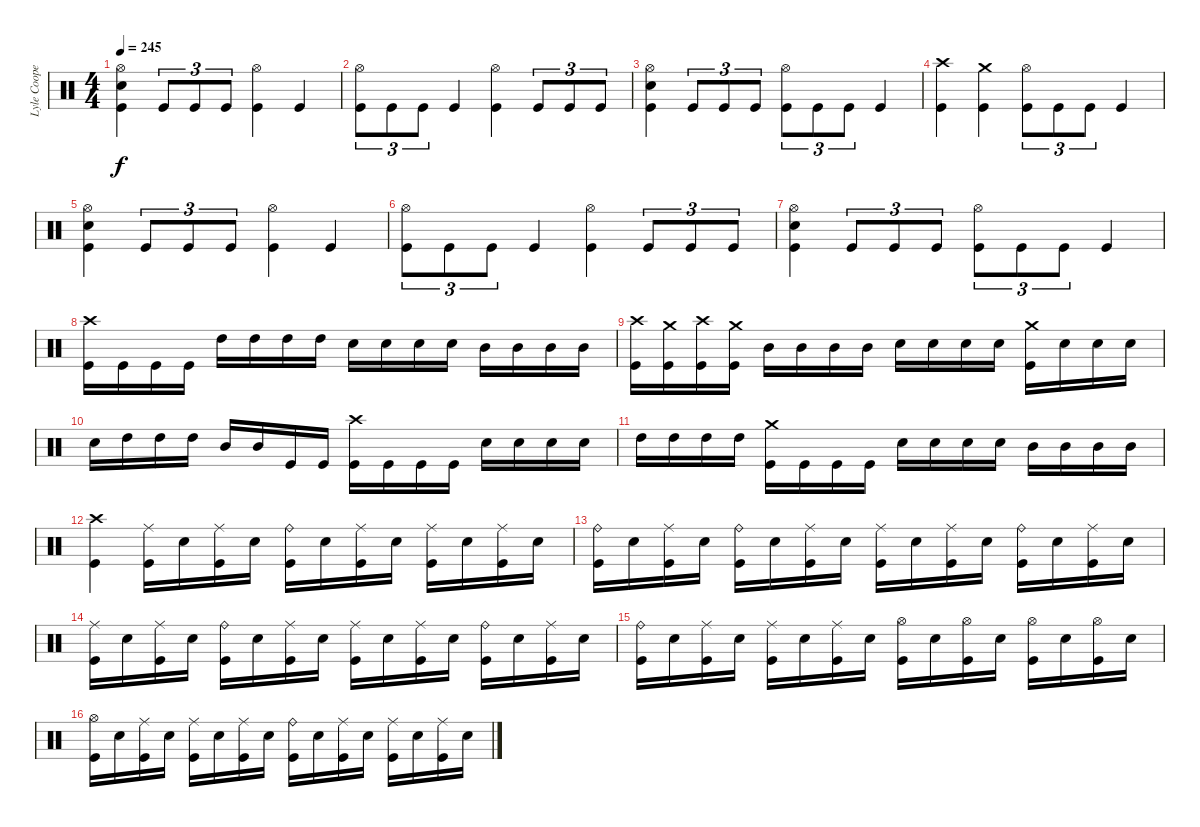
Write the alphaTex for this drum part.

\track ("Lyle Cooper" "Lyle Coope") {instrument percussion}
\staff {score}
\articulation defaults
\ts (4 4)
\tempo 245
\clef neutral
\ks c
("Hi-Hat (open)" "Snare (hit) 2" "Kick (hit)").4{dy f} "Kick (hit)".8{tu (3 2)} "Kick (hit)".8{tu (3 2)} "Kick (hit)".8{tu (3 2)} ("Hi-Hat (open)" "Kick (hit)").4 "Kick (hit)".4 |
("Hi-Hat (open)" "Kick (hit)").8{tu (3 2)} "Kick (hit)".8{tu (3 2)} "Kick (hit)".8{tu (3 2)} "Kick (hit)".4 ("Hi-Hat (open)" "Kick (hit)").4 "Kick (hit)".8{tu (3 2)} "Kick (hit)".8{tu (3 2)} "Kick (hit)".8{tu (3 2)} |
("Hi-Hat (open)" "Snare (hit) 2" "Kick (hit)").4 "Kick (hit)".8{tu (3 2)} "Kick (hit)".8{tu (3 2)} "Kick (hit)".8{tu (3 2)} ("Hi-Hat (open)" "Kick (hit)").8{tu (3 2)} "Kick (hit)".8{tu (3 2)} "Kick (hit)".8{tu (3 2)} "Kick (hit)".4 |
("Crash high (hit)" "Kick (hit)").4 ("Crash medium (hit)" "Kick (hit)").4 ("Hi-Hat (open)" "Kick (hit)").8{tu (3 2)} "Kick (hit)".8{tu (3 2)} "Kick (hit)".8{tu (3 2)} "Kick (hit)".4 |
("Hi-Hat (open)" "Snare (hit) 2" "Kick (hit)").4 "Kick (hit)".8{tu (3 2)} "Kick (hit)".8{tu (3 2)} "Kick (hit)".8{tu (3 2)} ("Hi-Hat (open)" "Kick (hit)").4 "Kick (hit)".4 |
("Hi-Hat (open)" "Kick (hit)").8{tu (3 2)} "Kick (hit)".8{tu (3 2)} "Kick (hit)".8{tu (3 2)} "Kick (hit)".4 ("Hi-Hat (open)" "Kick (hit)").4 "Kick (hit)".8{tu (3 2)} "Kick (hit)".8{tu (3 2)} "Kick (hit)".8{tu (3 2)} |
("Hi-Hat (open)" "Snare (hit) 2" "Kick (hit)").4 "Kick (hit)".8{tu (3 2)} "Kick (hit)".8{tu (3 2)} "Kick (hit)".8{tu (3 2)} ("Hi-Hat (open)" "Kick (hit)").8{tu (3 2)} "Kick (hit)".8{tu (3 2)} "Kick (hit)".8{tu (3 2)} "Kick (hit)".4 |
("Crash high (hit)" "Kick (hit)").16 "Kick (hit)".16 "Kick (hit)".16 "Kick (hit)".16 "High Tom (hit)".16 "High Tom (hit)".16 "High Tom (hit)".16 "High Tom (hit)".16 "Snare (hit) 2".16 "Snare (hit) 2".16 "Snare (hit) 2".16 "Snare (hit) 2".16 "Mid Tom (hit)".16 "Mid Tom (hit)".16 "Mid Tom (hit)".16 "Mid Tom (hit)".16 |
("Crash high (hit)" "Kick (hit)").16 ("Crash medium (hit)" "Kick (hit)").16 ("Crash high (hit)" "Kick (hit)").16 ("Crash medium (hit)" "Kick (hit)").16 "Mid Tom (hit)".16 "Mid Tom (hit)".16 "Mid Tom (hit)".16 "Mid Tom (hit)".16 "Snare (hit) 2".16 "Snare (hit) 2".16 "Snare (hit) 2".16 "Snare (hit) 2".16 ("Crash medium (hit)" "Kick (hit)").16 "Snare (hit) 2".16 "Snare (hit) 2".16 "Snare (hit) 2".16 |
"Snare (hit) 2".16 "High Tom (hit)".16 "High Tom (hit)".16 "High Tom (hit)".16 "Mid Tom (hit)".16 "Mid Tom (hit)".16 "Kick (hit)".16 "Kick (hit)".16 ("Crash high (hit)" "Kick (hit)").16 "Kick (hit)".16 "Kick (hit)".16 "Kick (hit)".16 "Snare (hit) 2".16 "Snare (hit) 2".16 "Snare (hit) 2".16 "Snare (hit) 2".16 |
"High Tom (hit)".16 "High Tom (hit)".16 "High Tom (hit)".16 "High Tom (hit)".16 ("Crash medium (hit)" "Kick (hit)").16 "Kick (hit)".16 "Kick (hit)".16 "Kick (hit)".16 "Snare (hit) 2".16 "Snare (hit) 2".16 "Snare (hit) 2".16 "Snare (hit) 2".16 "Mid Tom (hit)".16 "Mid Tom (hit)".16 "Mid Tom (hit)".16 "Mid Tom (hit)".16 |
("Crash high (hit)" "Kick (hit)").4 ("Ride (middle)" "Kick (hit)").16 "Snare (hit) 2".16 ("Ride (middle)" "Kick (hit)").16 "Snare (hit) 2".16 ("Ride (bell)" "Kick (hit)").16 "Snare (hit) 2".16 ("Ride (middle)" "Kick (hit)").16 "Snare (hit) 2".16 ("Ride (middle)" "Kick (hit)").16 "Snare (hit) 2".16 ("Ride (middle)" "Kick (hit)").16 "Snare (hit) 2".16 |
("Ride (bell)" "Kick (hit)").16 "Snare (hit) 2".16 ("Ride (middle)" "Kick (hit)").16 "Snare (hit) 2".16 ("Ride (bell)" "Kick (hit)").16 "Snare (hit) 2".16 ("Ride (middle)" "Kick (hit)").16 "Snare (hit) 2".16 ("Ride (middle)" "Kick (hit)").16 "Snare (hit) 2".16 ("Ride (middle)" "Kick (hit)").16 "Snare (hit) 2".16 ("Ride (bell)" "Kick (hit)").16 "Snare (hit) 2".16 ("Ride (middle)" "Kick (hit)").16 "Snare (hit) 2".16 |
("Ride (middle)" "Kick (hit)").16 "Snare (hit) 2".16 ("Ride (middle)" "Kick (hit)").16 "Snare (hit) 2".16 ("Ride (bell)" "Kick (hit)").16 "Snare (hit) 2".16 ("Ride (middle)" "Kick (hit)").16 "Snare (hit) 2".16 ("Ride (middle)" "Kick (hit)").16 "Snare (hit) 2".16 ("Ride (middle)" "Kick (hit)").16 "Snare (hit) 2".16 ("Ride (bell)" "Kick (hit)").16 "Snare (hit) 2".16 ("Ride (middle)" "Kick (hit)").16 "Snare (hit) 2".16 |
("Ride (bell)" "Kick (hit)").16 "Snare (hit) 2".16 ("Ride (middle)" "Kick (hit)").16 "Snare (hit) 2".16 ("Ride (middle)" "Kick (hit)").16 "Snare (hit) 2".16 ("Ride (middle)" "Kick (hit)").16 "Snare (hit) 2".16 ("Hi-Hat (open)" "Kick (hit)").16 "Snare (hit) 2".16 ("Hi-Hat (open)" "Kick (hit)").16 "Snare (hit) 2".16 ("Hi-Hat (open)" "Kick (hit)").16 "Snare (hit) 2".16 ("Hi-Hat (open)" "Kick (hit)").16 "Snare (hit) 2".16 |
("Hi-Hat (open)" "Kick (hit)").16 "Snare (hit) 2".16 ("Ride (middle)" "Kick (hit)").16 "Snare (hit) 2".16 ("Ride (middle)" "Kick (hit)").16 "Snare (hit) 2".16 ("Ride (middle)" "Kick (hit)").16 "Snare (hit) 2".16 ("Ride (bell)" "Kick (hit)").16 "Snare (hit) 2".16 ("Ride (middle)" "Kick (hit)").16 "Snare (hit) 2".16 ("Ride (middle)" "Kick (hit)").16 "Snare (hit) 2".16 ("Ride (middle)" "Kick (hit)").16 "Snare (hit) 2".16
